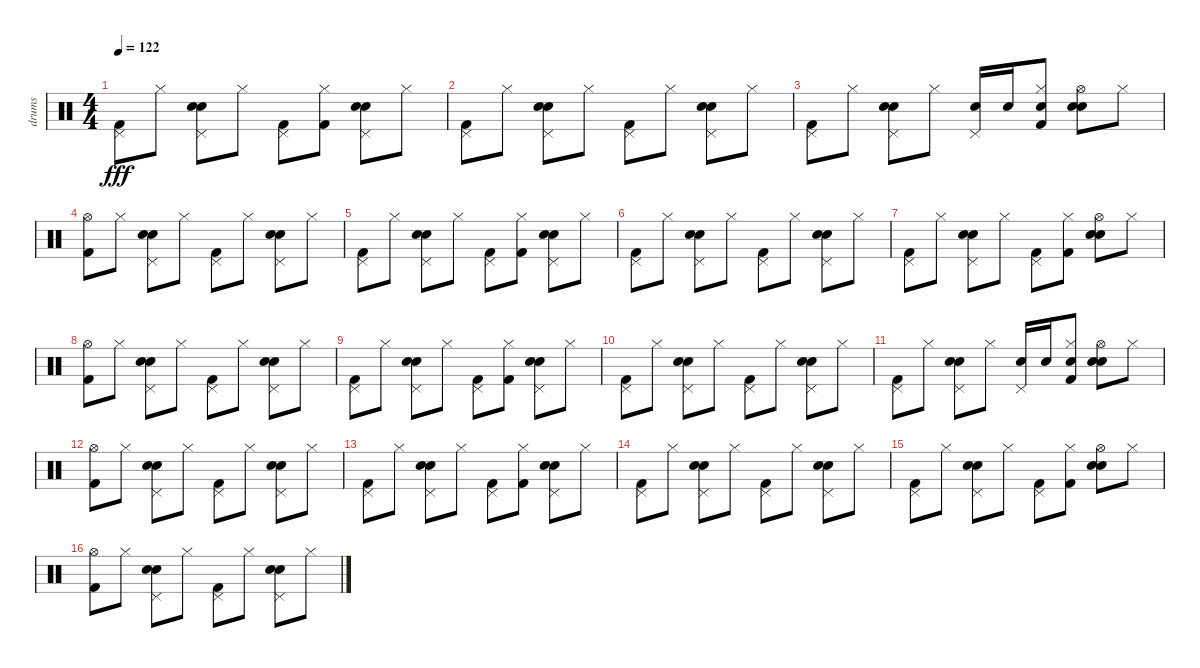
\track ("drums" "drums") {instrument percussion}
\staff {score}
\articulation defaults
\ts (4 4)
\tempo 122
\clef neutral
\ks c
("Pedal Hi-Hat (hit)" "Kick (hit) 2").8{dy fff} "Hi-Hat (closed)".8 ("Hand Clap (hit)" "Pedal Hi-Hat (hit)" "Snare (hit) 2").8 "Hi-Hat (closed)".8 ("Pedal Hi-Hat (hit)" "Kick (hit) 2").8 ("Hi-Hat (closed)" "Kick (hit) 2").8 ("Hand Clap (hit)" "Pedal Hi-Hat (hit)" "Snare (hit) 2").8 "Hi-Hat (closed)".8 |
("Pedal Hi-Hat (hit)" "Kick (hit) 2").8 "Hi-Hat (closed)".8 ("Hand Clap (hit)" "Pedal Hi-Hat (hit)" "Snare (hit) 2").8 "Hi-Hat (closed)".8 ("Pedal Hi-Hat (hit)" "Kick (hit) 2").8 "Hi-Hat (closed)".8 ("Hand Clap (hit)" "Pedal Hi-Hat (hit)" "Snare (hit) 2").8 "Hi-Hat (closed)".8 |
("Kick (hit) 2" "Pedal Hi-Hat (hit)").8 "Hi-Hat (closed)".8 ("Hand Clap (hit)" "Snare (hit) 2" "Pedal Hi-Hat (hit)").8 "Hi-Hat (closed)".8 ("Snare (hit) 2" "Pedal Hi-Hat (hit)").16 "Snare (hit) 2".16 ("Kick (hit) 2" "Snare (hit) 2" "Hi-Hat (closed)").8 ("Hand Clap (hit)" "Hi-Hat (open)" "Snare (hit) 2").8 "Hi-Hat (closed)".8 |
("Hi-Hat (open)" "Kick (hit) 2").8 "Hi-Hat (closed)".8 ("Hand Clap (hit)" "Pedal Hi-Hat (hit)" "Snare (hit) 2").8 "Hi-Hat (closed)".8 ("Pedal Hi-Hat (hit)" "Kick (hit) 2").8 "Hi-Hat (closed)".8 ("Hand Clap (hit)" "Pedal Hi-Hat (hit)" "Snare (hit) 2").8 "Hi-Hat (closed)".8 |
("Pedal Hi-Hat (hit)" "Kick (hit) 2").8 "Hi-Hat (closed)".8 ("Hand Clap (hit)" "Pedal Hi-Hat (hit)" "Snare (hit) 2").8 "Hi-Hat (closed)".8 ("Pedal Hi-Hat (hit)" "Kick (hit) 2").8 ("Hi-Hat (closed)" "Kick (hit) 2").8 ("Hand Clap (hit)" "Pedal Hi-Hat (hit)" "Snare (hit) 2").8 "Hi-Hat (closed)".8 |
("Pedal Hi-Hat (hit)" "Kick (hit) 2").8 "Hi-Hat (closed)".8 ("Hand Clap (hit)" "Pedal Hi-Hat (hit)" "Snare (hit) 2").8 "Hi-Hat (closed)".8 ("Pedal Hi-Hat (hit)" "Kick (hit) 2").8 "Hi-Hat (closed)".8 ("Hand Clap (hit)" "Pedal Hi-Hat (hit)" "Snare (hit) 2").8 "Hi-Hat (closed)".8 |
("Pedal Hi-Hat (hit)" "Kick (hit) 2").8 "Hi-Hat (closed)".8 ("Hand Clap (hit)" "Pedal Hi-Hat (hit)" "Snare (hit) 2").8 "Hi-Hat (closed)".8 ("Kick (hit) 2" "Pedal Hi-Hat (hit)").8 ("Kick (hit) 2" "Hi-Hat (closed)").8 ("Hand Clap (hit)" "Hi-Hat (open)" "Snare (hit) 2").8 "Hi-Hat (closed)".8 |
("Hi-Hat (open)" "Kick (hit) 2").8 "Hi-Hat (closed)".8 ("Hand Clap (hit)" "Pedal Hi-Hat (hit)" "Snare (hit) 2").8 "Hi-Hat (closed)".8 ("Pedal Hi-Hat (hit)" "Kick (hit) 2").8 "Hi-Hat (closed)".8 ("Hand Clap (hit)" "Pedal Hi-Hat (hit)" "Snare (hit) 2").8 "Hi-Hat (closed)".8 |
("Pedal Hi-Hat (hit)" "Kick (hit) 2").8 "Hi-Hat (closed)".8 ("Hand Clap (hit)" "Pedal Hi-Hat (hit)" "Snare (hit) 2").8 "Hi-Hat (closed)".8 ("Pedal Hi-Hat (hit)" "Kick (hit) 2").8 ("Hi-Hat (closed)" "Kick (hit) 2").8 ("Hand Clap (hit)" "Pedal Hi-Hat (hit)" "Snare (hit) 2").8 "Hi-Hat (closed)".8 |
("Pedal Hi-Hat (hit)" "Kick (hit) 2").8 "Hi-Hat (closed)".8 ("Hand Clap (hit)" "Pedal Hi-Hat (hit)" "Snare (hit) 2").8 "Hi-Hat (closed)".8 ("Pedal Hi-Hat (hit)" "Kick (hit) 2").8 "Hi-Hat (closed)".8 ("Hand Clap (hit)" "Pedal Hi-Hat (hit)" "Snare (hit) 2").8 "Hi-Hat (closed)".8 |
("Kick (hit) 2" "Pedal Hi-Hat (hit)").8 "Hi-Hat (closed)".8 ("Hand Clap (hit)" "Pedal Hi-Hat (hit)" "Snare (hit) 2").8 "Hi-Hat (closed)".8 ("Snare (hit) 2" "Pedal Hi-Hat (hit)").16 "Snare (hit) 2".16 ("Kick (hit) 2" "Snare (hit) 2" "Hi-Hat (closed)").8 ("Hand Clap (hit)" "Hi-Hat (open)" "Snare (hit) 2").8 "Hi-Hat (closed)".8 |
("Hi-Hat (open)" "Kick (hit) 2").8 "Hi-Hat (closed)".8 ("Hand Clap (hit)" "Pedal Hi-Hat (hit)" "Snare (hit) 2").8 "Hi-Hat (closed)".8 ("Pedal Hi-Hat (hit)" "Kick (hit) 2").8 "Hi-Hat (closed)".8 ("Hand Clap (hit)" "Pedal Hi-Hat (hit)" "Snare (hit) 2").8 "Hi-Hat (closed)".8 |
("Pedal Hi-Hat (hit)" "Kick (hit) 2").8 "Hi-Hat (closed)".8 ("Hand Clap (hit)" "Pedal Hi-Hat (hit)" "Snare (hit) 2").8 "Hi-Hat (closed)".8 ("Pedal Hi-Hat (hit)" "Kick (hit) 2").8 ("Hi-Hat (closed)" "Kick (hit) 2").8 ("Hand Clap (hit)" "Pedal Hi-Hat (hit)" "Snare (hit) 2").8 "Hi-Hat (closed)".8 |
("Pedal Hi-Hat (hit)" "Kick (hit) 2").8 "Hi-Hat (closed)".8 ("Hand Clap (hit)" "Pedal Hi-Hat (hit)" "Snare (hit) 2").8 "Hi-Hat (closed)".8 ("Pedal Hi-Hat (hit)" "Kick (hit) 2").8 "Hi-Hat (closed)".8 ("Hand Clap (hit)" "Pedal Hi-Hat (hit)" "Snare (hit) 2").8 "Hi-Hat (closed)".8 |
("Pedal Hi-Hat (hit)" "Kick (hit) 2").8 "Hi-Hat (closed)".8 ("Hand Clap (hit)" "Pedal Hi-Hat (hit)" "Snare (hit) 2").8 "Hi-Hat (closed)".8 ("Kick (hit) 2" "Pedal Hi-Hat (hit)").8 ("Kick (hit) 2" "Hi-Hat (closed)").8 ("Hand Clap (hit)" "Hi-Hat (open)" "Snare (hit) 2").8 "Hi-Hat (closed)".8 |
("Hi-Hat (open)" "Kick (hit) 2").8 "Hi-Hat (closed)".8 ("Hand Clap (hit)" "Pedal Hi-Hat (hit)" "Snare (hit) 2").8 "Hi-Hat (closed)".8 ("Pedal Hi-Hat (hit)" "Kick (hit) 2").8 "Hi-Hat (closed)".8 ("Hand Clap (hit)" "Pedal Hi-Hat (hit)" "Snare (hit) 2").8 "Hi-Hat (closed)".8
